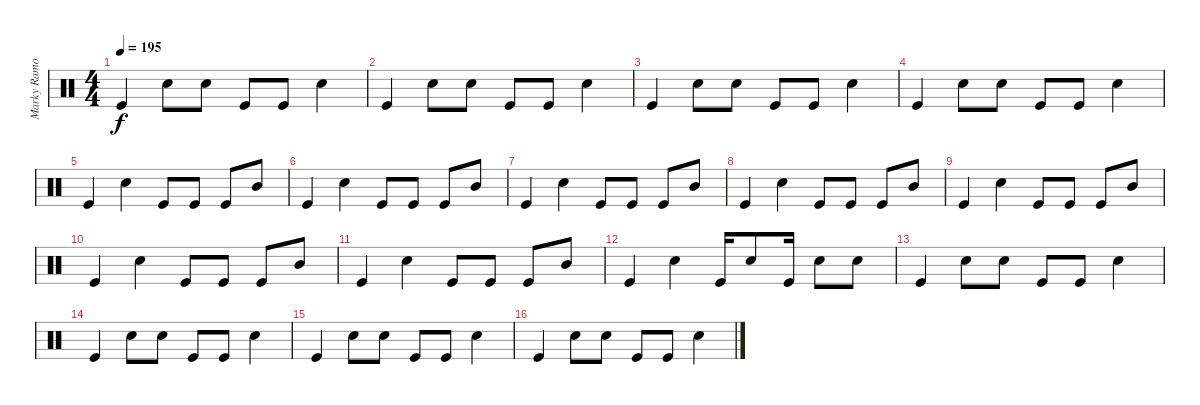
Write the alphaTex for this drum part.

\track ("Marky Ramone" "Marky Ramo") {instrument percussion}
\staff {score}
\articulation defaults
\ts (4 4)
\tempo 195
\clef neutral
\ks c "Kick (hit)".4{dy f} "Electric Snare (hit)".8 "Electric Snare (hit)".8 "Kick (hit)".8 "Kick (hit)".8 "Electric Snare (hit)".4
|
"Kick (hit)".4 "Electric Snare (hit)".8 "Electric Snare (hit)".8 "Kick (hit)".8 "Kick (hit)".8 "Electric Snare (hit)".4 |
"Kick (hit)".4 "Electric Snare (hit)".8 "Electric Snare (hit)".8 "Kick (hit)".8 "Kick (hit)".8 "Electric Snare (hit)".4 |
"Kick (hit)".4 "Electric Snare (hit)".8 "Electric Snare (hit)".8 "Kick (hit)".8 "Kick (hit)".8 "Electric Snare (hit)".4 |
"Kick (hit)".4 "Electric Snare (hit)".4 "Kick (hit)".8 "Kick (hit)".8 "Kick (hit)".8 "Mid Tom (hit)".8 |
"Kick (hit)".4 "Electric Snare (hit)".4 "Kick (hit)".8 "Kick (hit)".8 "Kick (hit)".8 "Mid Tom (hit)".8 |
"Kick (hit)".4 "Electric Snare (hit)".4 "Kick (hit)".8 "Kick (hit)".8 "Kick (hit)".8 "Mid Tom (hit)".8 |
"Kick (hit)".4 "Electric Snare (hit)".4 "Kick (hit)".8 "Kick (hit)".8 "Kick (hit)".8 "Mid Tom (hit)".8 |
"Kick (hit)".4 "Electric Snare (hit)".4 "Kick (hit)".8 "Kick (hit)".8 "Kick (hit)".8 "Mid Tom (hit)".8 |
"Kick (hit)".4 "Electric Snare (hit)".4 "Kick (hit)".8 "Kick (hit)".8 "Kick (hit)".8 "Mid Tom (hit)".8 |
"Kick (hit)".4 "Electric Snare (hit)".4 "Kick (hit)".8 "Kick (hit)".8 "Kick (hit)".8 "Mid Tom (hit)".8 |
"Kick (hit)".4 "Electric Snare (hit)".4 "Kick (hit)".16 "Electric Snare (hit)".8 "Kick (hit)".16 "Electric Snare (hit)".8 "Electric Snare (hit)".8 |
"Kick (hit)".4 "Electric Snare (hit)".8 "Electric Snare (hit)".8 "Kick (hit)".8 "Kick (hit)".8 "Electric Snare (hit)".4 |
"Kick (hit)".4 "Electric Snare (hit)".8 "Electric Snare (hit)".8 "Kick (hit)".8 "Kick (hit)".8 "Electric Snare (hit)".4 |
"Kick (hit)".4 "Electric Snare (hit)".8 "Electric Snare (hit)".8 "Kick (hit)".8 "Kick (hit)".8 "Electric Snare (hit)".4 |
"Kick (hit)".4 "Electric Snare (hit)".8 "Electric Snare (hit)".8 "Kick (hit)".8 "Kick (hit)".8 "Electric Snare (hit)".4
